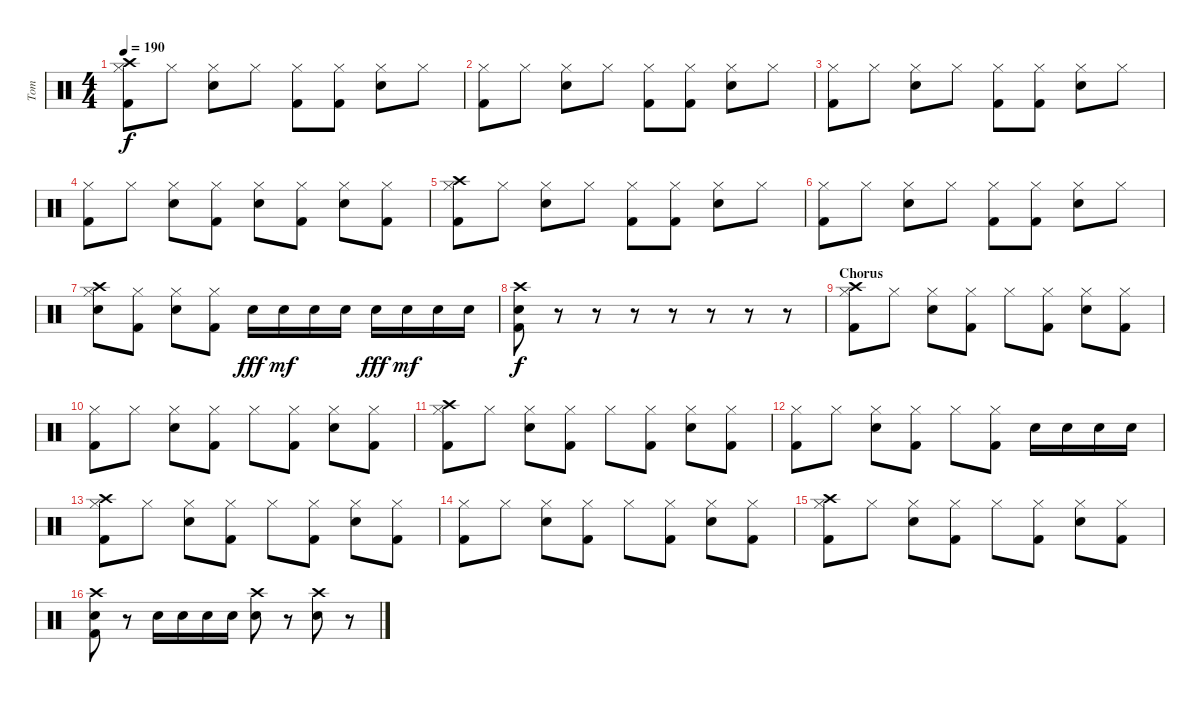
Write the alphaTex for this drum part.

\track ("Tom" "Tom") {instrument percussion}
\staff {score}
\articulation defaults
\ts (4 4)
\tempo 190
\clef neutral
\ks c
("Crash high (hit)" "Hi-Hat (closed)" "Kick (hit) 2").8{dy f} "Hi-Hat (closed)".8 ("Hi-Hat (closed)" "Electric Snare (hit)").8 "Hi-Hat (closed)".8 ("Hi-Hat (closed)" "Kick (hit) 2").8 ("Hi-Hat (closed)" "Kick (hit) 2").8 ("Hi-Hat (closed)" "Electric Snare (hit)").8 "Hi-Hat (closed)".8 |
("Hi-Hat (closed)" "Kick (hit) 2").8 "Hi-Hat (closed)".8 ("Hi-Hat (closed)" "Electric Snare (hit)").8 "Hi-Hat (closed)".8 ("Hi-Hat (closed)" "Kick (hit) 2").8 ("Hi-Hat (closed)" "Kick (hit) 2").8 ("Hi-Hat (closed)" "Electric Snare (hit)").8 "Hi-Hat (closed)".8 |
("Hi-Hat (closed)" "Kick (hit) 2").8 "Hi-Hat (closed)".8 ("Hi-Hat (closed)" "Electric Snare (hit)").8 "Hi-Hat (closed)".8 ("Hi-Hat (closed)" "Kick (hit) 2").8 ("Hi-Hat (closed)" "Kick (hit) 2").8 ("Hi-Hat (closed)" "Electric Snare (hit)").8 "Hi-Hat (closed)".8 |
("Hi-Hat (closed)" "Kick (hit) 2").8 "Hi-Hat (closed)".8 ("Hi-Hat (closed)" "Electric Snare (hit)").8 ("Hi-Hat (closed)" "Kick (hit) 2").8 ("Hi-Hat (closed)" "Electric Snare (hit)").8 ("Hi-Hat (closed)" "Kick (hit) 2").8 ("Hi-Hat (closed)" "Electric Snare (hit)").8 ("Hi-Hat (closed)" "Kick (hit) 2").8 |
("Crash high (hit)" "Hi-Hat (closed)" "Kick (hit) 2").8 "Hi-Hat (closed)".8 ("Hi-Hat (closed)" "Electric Snare (hit)").8 "Hi-Hat (closed)".8 ("Hi-Hat (closed)" "Kick (hit) 2").8 ("Hi-Hat (closed)" "Kick (hit) 2").8 ("Hi-Hat (closed)" "Electric Snare (hit)").8 "Hi-Hat (closed)".8 |
("Hi-Hat (closed)" "Kick (hit) 2").8 "Hi-Hat (closed)".8 ("Hi-Hat (closed)" "Electric Snare (hit)").8 "Hi-Hat (closed)".8 ("Hi-Hat (closed)" "Kick (hit) 2").8 ("Hi-Hat (closed)" "Kick (hit) 2").8 ("Hi-Hat (closed)" "Electric Snare (hit)").8 "Hi-Hat (closed)".8 |
("Crash high (hit)" "Hi-Hat (closed)" "Electric Snare (hit)").8 ("Hi-Hat (closed)" "Kick (hit) 2").8 ("Hi-Hat (closed)" "Electric Snare (hit)").8 ("Hi-Hat (closed)" "Kick (hit) 2").8 "Electric Snare (hit)".16{dy fff} "Electric Snare (hit)".16{dy mf} "Electric Snare (hit)".16 "Electric Snare (hit)".16 "Electric Snare (hit)".16{dy fff} "Electric Snare (hit)".16{dy mf} "Electric Snare (hit)".16 "Electric Snare (hit)".16 |
("Crash high (hit)" "Electric Snare (hit)" "Kick (hit) 2").8{dy f} r.8 r.8 r.8 r.8 r.8 r.8 r.8 |
\section ("" "Chorus")
("Crash high (hit)" "Hi-Hat (closed)" "Kick (hit) 2").8 "Hi-Hat (closed)".8 ("Hi-Hat (closed)" "Electric Snare (hit)").8 ("Hi-Hat (closed)" "Kick (hit) 2").8 "Hi-Hat (closed)".8 ("Hi-Hat (closed)" "Kick (hit) 2").8 ("Hi-Hat (closed)" "Electric Snare (hit)").8 ("Hi-Hat (closed)" "Kick (hit) 2").8 |
("Hi-Hat (closed)" "Kick (hit) 2").8 "Hi-Hat (closed)".8 ("Hi-Hat (closed)" "Electric Snare (hit)").8 ("Hi-Hat (closed)" "Kick (hit) 2").8 "Hi-Hat (closed)".8 ("Hi-Hat (closed)" "Kick (hit) 2").8 ("Hi-Hat (closed)" "Electric Snare (hit)").8 ("Hi-Hat (closed)" "Kick (hit) 2").8 |
("Crash high (hit)" "Hi-Hat (closed)" "Kick (hit) 2").8 "Hi-Hat (closed)".8 ("Hi-Hat (closed)" "Electric Snare (hit)").8 ("Hi-Hat (closed)" "Kick (hit) 2").8 "Hi-Hat (closed)".8 ("Hi-Hat (closed)" "Kick (hit) 2").8 ("Hi-Hat (closed)" "Electric Snare (hit)").8 ("Hi-Hat (closed)" "Kick (hit) 2").8 |
("Hi-Hat (closed)" "Kick (hit) 2").8 "Hi-Hat (closed)".8 ("Hi-Hat (closed)" "Electric Snare (hit)").8 ("Hi-Hat (closed)" "Kick (hit) 2").8 "Hi-Hat (closed)".8 ("Hi-Hat (closed)" "Kick (hit) 2").8 "Electric Snare (hit)".16 "Electric Snare (hit)".16 "Electric Snare (hit)".16 "Electric Snare (hit)".16 |
("Crash high (hit)" "Hi-Hat (closed)" "Kick (hit) 2").8 "Hi-Hat (closed)".8 ("Hi-Hat (closed)" "Electric Snare (hit)").8 ("Hi-Hat (closed)" "Kick (hit) 2").8 "Hi-Hat (closed)".8 ("Hi-Hat (closed)" "Kick (hit) 2").8 ("Hi-Hat (closed)" "Electric Snare (hit)").8 ("Hi-Hat (closed)" "Kick (hit) 2").8 |
("Hi-Hat (closed)" "Kick (hit) 2").8 "Hi-Hat (closed)".8 ("Hi-Hat (closed)" "Electric Snare (hit)").8 ("Hi-Hat (closed)" "Kick (hit) 2").8 "Hi-Hat (closed)".8 ("Hi-Hat (closed)" "Kick (hit) 2").8 ("Hi-Hat (closed)" "Electric Snare (hit)").8 ("Hi-Hat (closed)" "Kick (hit) 2").8 |
("Crash high (hit)" "Hi-Hat (closed)" "Kick (hit) 2").8 "Hi-Hat (closed)".8 ("Hi-Hat (closed)" "Electric Snare (hit)").8 ("Hi-Hat (closed)" "Kick (hit) 2").8 "Hi-Hat (closed)".8 ("Hi-Hat (closed)" "Kick (hit) 2").8 ("Hi-Hat (closed)" "Electric Snare (hit)").8 ("Hi-Hat (closed)" "Kick (hit) 2").8 |
("Crash high (hit)" "Electric Snare (hit)" "Kick (hit) 2").8 r.8 "Electric Snare (hit)".16 "Electric Snare (hit)".16 "Electric Snare (hit)".16 "Electric Snare (hit)".16 ("Crash high (hit)" "Electric Snare (hit)").8 r.8 ("Crash high (hit)" "Electric Snare (hit)").8 r.8
